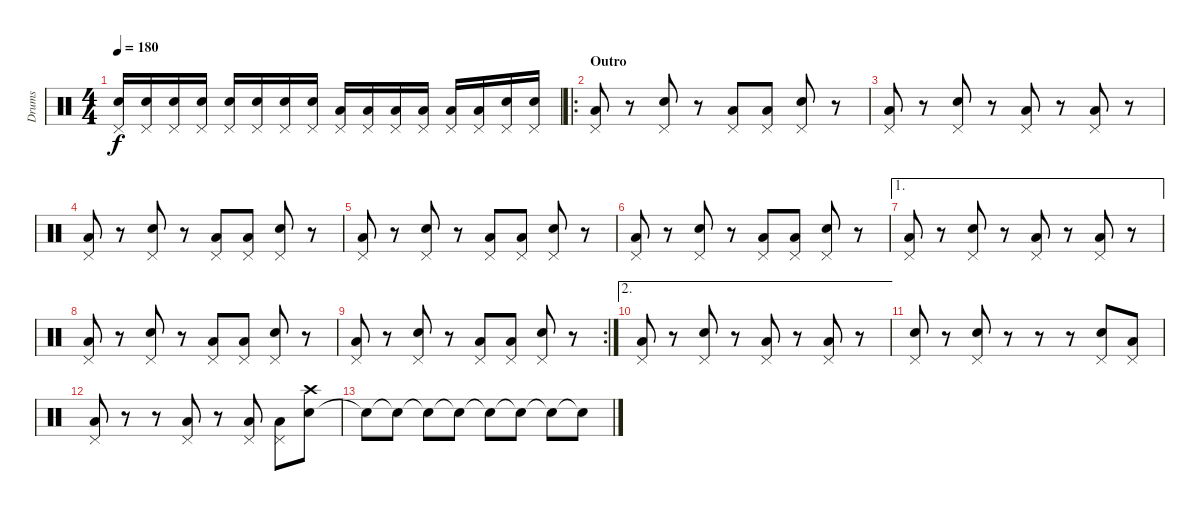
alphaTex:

\track ("Drums" "Drums") {instrument percussion}
\staff {score}
\articulation defaults
\ts (4 4)
\tempo 180
\clef neutral
\ks c
("Electric Snare (hit)" "Pedal Hi-Hat (hit)").16{dy f} ("Electric Snare (hit)" "Pedal Hi-Hat (hit)").16 ("Electric Snare (hit)" "Pedal Hi-Hat (hit)").16 ("Electric Snare (hit)" "Pedal Hi-Hat (hit)").16 ("Electric Snare (hit)" "Pedal Hi-Hat (hit)").16 ("Electric Snare (hit)" "Pedal Hi-Hat (hit)").16 ("Electric Snare (hit)" "Pedal Hi-Hat (hit)").16 ("Electric Snare (hit)" "Pedal Hi-Hat (hit)").16 ("Low Tom (hit)" "Pedal Hi-Hat (hit)").16 ("Low Tom (hit)" "Pedal Hi-Hat (hit)").16 ("Low Tom (hit)" "Pedal Hi-Hat (hit)").16 ("Low Tom (hit)" "Pedal Hi-Hat (hit)").16 ("Low Tom (hit)" "Pedal Hi-Hat (hit)").16 ("Low Tom (hit)" "Pedal Hi-Hat (hit)").16 ("Electric Snare (hit)" "Pedal Hi-Hat (hit)").16 ("Electric Snare (hit)" "Pedal Hi-Hat (hit)").16 |
\ro
\section ("" "Outro")
("Low Tom (hit)" "Pedal Hi-Hat (hit)").8 r.8 ("Electric Snare (hit)" "Pedal Hi-Hat (hit)").8 r.8 ("Low Tom (hit)" "Pedal Hi-Hat (hit)").8 ("Low Tom (hit)" "Pedal Hi-Hat (hit)").8 ("Electric Snare (hit)" "Pedal Hi-Hat (hit)").8 r.8 |
("Low Tom (hit)" "Pedal Hi-Hat (hit)").8 r.8 ("Electric Snare (hit)" "Pedal Hi-Hat (hit)").8 r.8 ("Low Tom (hit)" "Pedal Hi-Hat (hit)").8 r.8 ("Low Tom (hit)" "Pedal Hi-Hat (hit)").8 r.8 |
("Low Tom (hit)" "Pedal Hi-Hat (hit)").8 r.8 ("Electric Snare (hit)" "Pedal Hi-Hat (hit)").8 r.8 ("Low Tom (hit)" "Pedal Hi-Hat (hit)").8 ("Low Tom (hit)" "Pedal Hi-Hat (hit)").8 ("Electric Snare (hit)" "Pedal Hi-Hat (hit)").8 r.8 |
("Low Tom (hit)" "Pedal Hi-Hat (hit)").8 r.8 ("Electric Snare (hit)" "Pedal Hi-Hat (hit)").8 r.8 ("Low Tom (hit)" "Pedal Hi-Hat (hit)").8 ("Low Tom (hit)" "Pedal Hi-Hat (hit)").8 ("Electric Snare (hit)" "Pedal Hi-Hat (hit)").8 r.8 |
("Low Tom (hit)" "Pedal Hi-Hat (hit)").8 r.8 ("Electric Snare (hit)" "Pedal Hi-Hat (hit)").8 r.8 ("Low Tom (hit)" "Pedal Hi-Hat (hit)").8 ("Low Tom (hit)" "Pedal Hi-Hat (hit)").8 ("Electric Snare (hit)" "Pedal Hi-Hat (hit)").8 r.8 |
\ae 1
("Low Tom (hit)" "Pedal Hi-Hat (hit)").8 r.8 ("Electric Snare (hit)" "Pedal Hi-Hat (hit)").8 r.8 ("Low Tom (hit)" "Pedal Hi-Hat (hit)").8 r.8 ("Low Tom (hit)" "Pedal Hi-Hat (hit)").8 r.8 |
("Low Tom (hit)" "Pedal Hi-Hat (hit)").8 r.8 ("Electric Snare (hit)" "Pedal Hi-Hat (hit)").8 r.8 ("Low Tom (hit)" "Pedal Hi-Hat (hit)").8 ("Low Tom (hit)" "Pedal Hi-Hat (hit)").8 ("Electric Snare (hit)" "Pedal Hi-Hat (hit)").8 r.8 |
\rc 2
("Low Tom (hit)" "Pedal Hi-Hat (hit)").8 r.8 ("Electric Snare (hit)" "Pedal Hi-Hat (hit)").8 r.8 ("Low Tom (hit)" "Pedal Hi-Hat (hit)").8 ("Low Tom (hit)" "Pedal Hi-Hat (hit)").8 ("Electric Snare (hit)" "Pedal Hi-Hat (hit)").8 r.8 |
\ae 2
("Low Tom (hit)" "Pedal Hi-Hat (hit)").8 r.8 ("Electric Snare (hit)" "Pedal Hi-Hat (hit)").8 r.8 ("Low Tom (hit)" "Pedal Hi-Hat (hit)").8 r.8 ("Low Tom (hit)" "Pedal Hi-Hat (hit)").8 r.8 |
("Electric Snare (hit)" "Pedal Hi-Hat (hit)").8 r.8 ("Electric Snare (hit)" "Pedal Hi-Hat (hit)").8 r.8 r.8 r.8 ("Electric Snare (hit)" "Pedal Hi-Hat (hit)").8 ("Low Tom (hit)" "Pedal Hi-Hat (hit)").8 |
("Low Tom (hit)" "Pedal Hi-Hat (hit)").8 r.8 r.8 ("Low Tom (hit)" "Pedal Hi-Hat (hit)").8 r.8 ("Low Tom (hit)" "Pedal Hi-Hat (hit)").8 ("Low Tom (hit)" "Pedal Hi-Hat (hit)").8 ("Electric Snare (hit)" "Crash high (hit)").8 |
"Snare (hit)"{t}.8 "Snare (hit)"{t}.8 "Snare (hit)"{t}.8 "Snare (hit)"{t}.8 "Snare (hit)"{t}.8 "Snare (hit)"{t}.8 "Snare (hit)"{t}.8 "Snare (hit)"{t}.8
